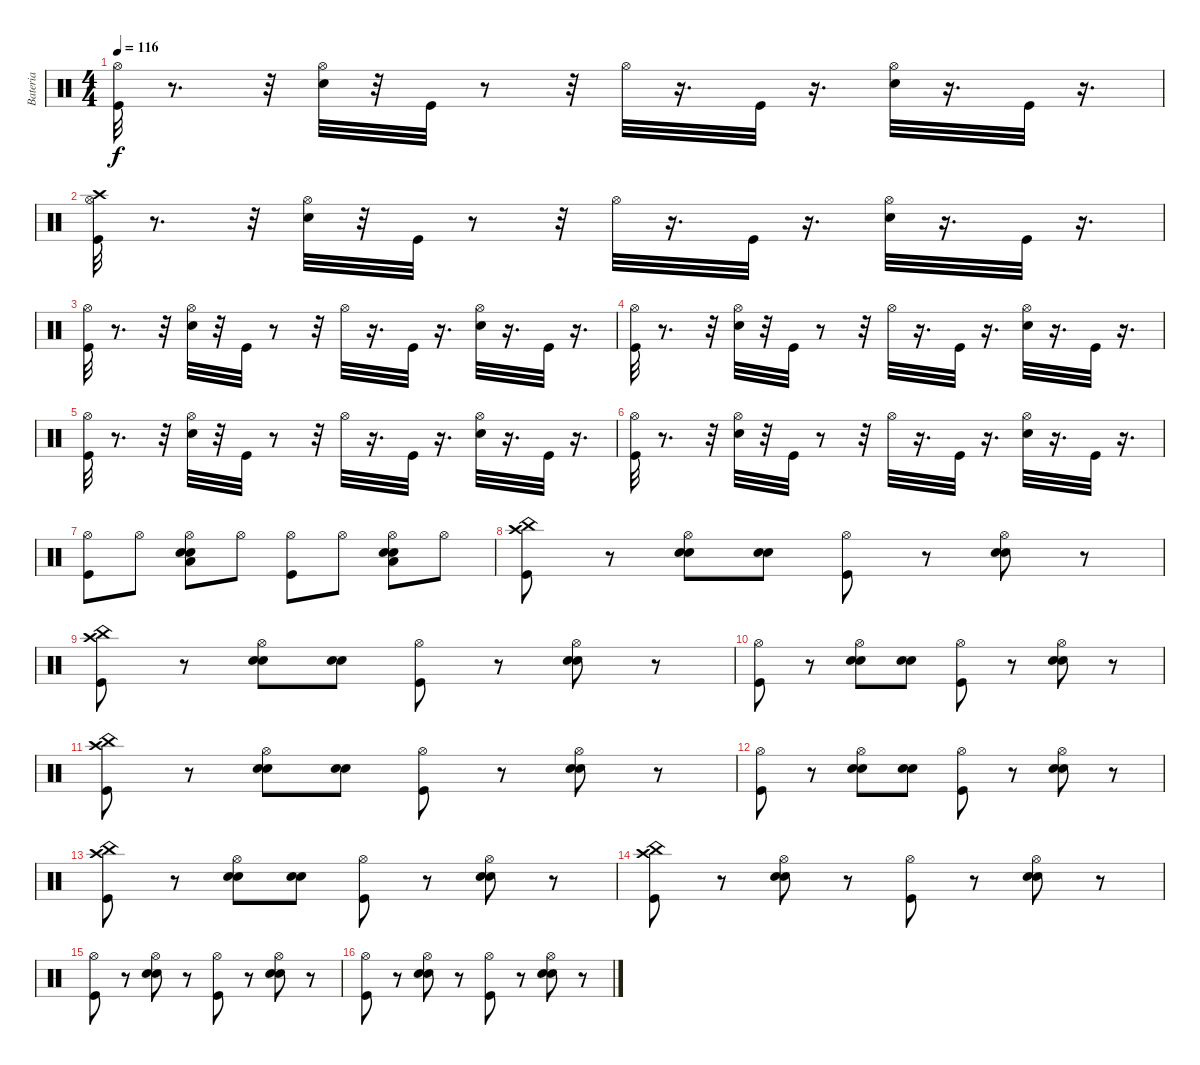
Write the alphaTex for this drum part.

\track ("Bateria" "Bateria") {instrument percussion}
\staff {score}
\articulation defaults
\ts (4 4)
\tempo 116
\clef neutral
\ks c
("Hi-Hat (open)" "Kick (hit)").32{dy f} r.8{d} r.32 ("Hi-Hat (open)" "Electric Snare (hit)").32 r.32 "Kick (hit)".32 r.8 r.32 "Hi-Hat (open)".32 r.16{d} "Kick (hit)".32 r.16{d} ("Hi-Hat (open)" "Electric Snare (hit)").32 r.16{d} "Kick (hit)".32 r.16{d} |
("Hi-Hat (open)" "Kick (hit)" "Crash high (hit)").32 r.8{d} r.32 ("Hi-Hat (open)" "Electric Snare (hit)").32 r.32 "Kick (hit)".32 r.8 r.32 "Hi-Hat (open)".32 r.16{d} "Kick (hit)".32 r.16{d} ("Hi-Hat (open)" "Electric Snare (hit)").32 r.16{d} "Kick (hit)".32 r.16{d} |
("Hi-Hat (open)" "Kick (hit)").32 r.8{d} r.32 ("Hi-Hat (open)" "Electric Snare (hit)").32 r.32 "Kick (hit)".32 r.8 r.32 "Hi-Hat (open)".32 r.16{d} "Kick (hit)".32 r.16{d} ("Hi-Hat (open)" "Electric Snare (hit)").32 r.16{d} "Kick (hit)".32 r.16{d} |
("Hi-Hat (open)" "Kick (hit)").32 r.8{d} r.32 ("Hi-Hat (open)" "Electric Snare (hit)").32 r.32 "Kick (hit)".32 r.8 r.32 "Hi-Hat (open)".32 r.16{d} "Kick (hit)".32 r.16{d} ("Hi-Hat (open)" "Electric Snare (hit)").32 r.16{d} "Kick (hit)".32 r.16{d} |
("Hi-Hat (open)" "Kick (hit)").32 r.8{d} r.32 ("Hi-Hat (open)" "Electric Snare (hit)").32 r.32 "Kick (hit)".32 r.8 r.32 "Hi-Hat (open)".32 r.16{d} "Kick (hit)".32 r.16{d} ("Hi-Hat (open)" "Electric Snare (hit)").32 r.16{d} "Kick (hit)".32 r.16{d} |
("Hi-Hat (open)" "Kick (hit)").32 r.8{d} r.32 ("Hi-Hat (open)" "Electric Snare (hit)").32 r.32 "Kick (hit)".32 r.8 r.32 "Hi-Hat (open)".32 r.16{d} "Kick (hit)".32 r.16{d} ("Hi-Hat (open)" "Electric Snare (hit)").32 r.16{d} "Kick (hit)".32 r.16{d} |
("Hi-Hat (open)" "Kick (hit)").8 "Hi-Hat (open)".8 ("Hi-Hat (open)" "Low Tom (hit)" "Electric Snare (hit)" "Snare (hit) 2").8 "Hi-Hat (open)".8 ("Hi-Hat (open)" "Kick (hit)").8 "Hi-Hat (open)".8 ("Hi-Hat (open)" "Low Tom (hit)" "Electric Snare (hit)" "Snare (hit) 2").8 "Hi-Hat (open)".8 |
("Kick (hit)" "Crash high (hit)" "China (hit)").8 r.8 ("Snare (hit) 2" "Electric Snare (hit)" "Hi-Hat (open)").8 ("Electric Snare (hit)" "Snare (hit) 2").8 ("Hi-Hat (open)" "Kick (hit)").8 r.8 ("Electric Snare (hit)" "Snare (hit) 2" "Hi-Hat (open)").8 r.8 |
("Kick (hit)" "Crash high (hit)" "China (hit)").8 r.8 ("Snare (hit) 2" "Electric Snare (hit)" "Hi-Hat (open)").8 ("Electric Snare (hit)" "Snare (hit) 2").8 ("Hi-Hat (open)" "Kick (hit)").8 r.8 ("Electric Snare (hit)" "Snare (hit) 2" "Hi-Hat (open)").8 r.8 |
("Hi-Hat (open)" "Kick (hit)").8 r.8 ("Snare (hit) 2" "Electric Snare (hit)" "Hi-Hat (open)").8 ("Electric Snare (hit)" "Snare (hit) 2").8 ("Hi-Hat (open)" "Kick (hit)").8 r.8 ("Electric Snare (hit)" "Snare (hit) 2" "Hi-Hat (open)").8 r.8 |
("Kick (hit)" "Crash high (hit)" "China (hit)").8 r.8 ("Snare (hit) 2" "Electric Snare (hit)" "Hi-Hat (open)").8 ("Electric Snare (hit)" "Snare (hit) 2").8 ("Hi-Hat (open)" "Kick (hit)").8 r.8 ("Electric Snare (hit)" "Snare (hit) 2" "Hi-Hat (open)").8 r.8 |
("Hi-Hat (open)" "Kick (hit)").8 r.8 ("Snare (hit) 2" "Electric Snare (hit)" "Hi-Hat (open)").8 ("Electric Snare (hit)" "Snare (hit) 2").8 ("Hi-Hat (open)" "Kick (hit)").8 r.8 ("Electric Snare (hit)" "Snare (hit) 2" "Hi-Hat (open)").8 r.8 |
("Kick (hit)" "Crash high (hit)" "China (hit)").8 r.8 ("Snare (hit) 2" "Electric Snare (hit)" "Hi-Hat (open)").8 ("Electric Snare (hit)" "Snare (hit) 2").8 ("Hi-Hat (open)" "Kick (hit)").8 r.8 ("Electric Snare (hit)" "Snare (hit) 2" "Hi-Hat (open)").8 r.8 |
("Kick (hit)" "Crash high (hit)" "China (hit)").8 r.8 ("Snare (hit) 2" "Electric Snare (hit)" "Hi-Hat (open)").8 r.8 ("Hi-Hat (open)" "Kick (hit)").8 r.8 ("Electric Snare (hit)" "Snare (hit) 2" "Hi-Hat (open)").8 r.8 |
("Hi-Hat (open)" "Kick (hit)").8 r.8 ("Snare (hit) 2" "Electric Snare (hit)" "Hi-Hat (open)").8 r.8 ("Hi-Hat (open)" "Kick (hit)").8 r.8 ("Electric Snare (hit)" "Snare (hit) 2" "Hi-Hat (open)").8 r.8 |
("Hi-Hat (open)" "Kick (hit)").8 r.8 ("Snare (hit) 2" "Electric Snare (hit)" "Hi-Hat (open)").8 r.8 ("Hi-Hat (open)" "Kick (hit)").8 r.8 ("Electric Snare (hit)" "Snare (hit) 2" "Hi-Hat (open)").8 r.8
